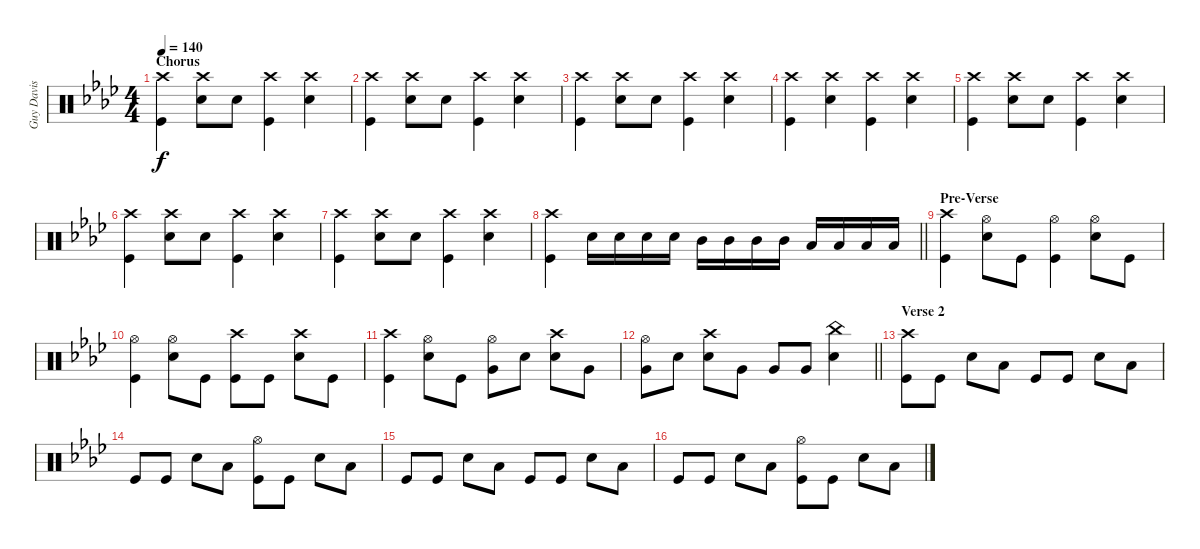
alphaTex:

\track ("Guy Davis" "Guy Davis") {instrument percussion}
\staff {score}
\articulation defaults
\ts (4 4)
\section ("" "Chorus")
\tempo 140
\clef neutral
\ks fminor
("Crash high (hit)" "Kick (hit)").4{dy f} ("Crash high (hit)" "Snare (hit) 2").8 "Snare (hit) 2".8 ("Crash high (hit)" "Kick (hit)").4 ("Crash high (hit)" "Snare (hit) 2").4 |
("Crash high (hit)" "Kick (hit)").4 ("Crash high (hit)" "Snare (hit) 2").8 "Snare (hit) 2".8 ("Crash high (hit)" "Kick (hit)").4 ("Crash high (hit)" "Snare (hit) 2").4 |
("Crash high (hit)" "Kick (hit)").4 ("Crash high (hit)" "Snare (hit) 2").8 "Snare (hit) 2".8 ("Crash high (hit)" "Kick (hit)").4 ("Crash high (hit)" "Snare (hit) 2").4 |
("Crash high (hit)" "Kick (hit)").4 ("Crash high (hit)" "Snare (hit) 2").4 ("Crash high (hit)" "Kick (hit)").4 ("Crash high (hit)" "Snare (hit) 2").4 |
("Crash high (hit)" "Kick (hit)").4 ("Crash high (hit)" "Snare (hit) 2").8 "Snare (hit) 2".8 ("Crash high (hit)" "Kick (hit)").4 ("Crash high (hit)" "Snare (hit) 2").4 |
("Crash high (hit)" "Kick (hit)").4 ("Crash high (hit)" "Snare (hit) 2").8 "Snare (hit) 2".8 ("Crash high (hit)" "Kick (hit)").4 ("Crash high (hit)" "Snare (hit) 2").4 |
("Crash high (hit)" "Kick (hit)").4 ("Crash high (hit)" "Snare (hit) 2").8 "Snare (hit) 2".8 ("Crash high (hit)" "Kick (hit)").4 ("Crash high (hit)" "Snare (hit) 2").4 |
\barLineRight lightlight
("Crash high (hit)" "Kick (hit)").4 "Snare (hit) 2".16 "Snare (hit) 2".16 "Snare (hit) 2".16 "Snare (hit) 2".16 "Mid Tom (hit)".16 "Mid Tom (hit)".16 "Mid Tom (hit)".16 "Mid Tom (hit)".16 "Low Tom (hit)".16 "Low Tom (hit)".16 "Low Tom (hit)".16 "Low Tom (hit)".16 |
\section ("" "Pre-Verse")
("Crash high (hit)" "Kick (hit)").4 ("Hi-Hat (open)" "Snare (hit) 2").8 "Kick (hit)".8 ("Hi-Hat (open)" "Kick (hit)").4 ("Hi-Hat (open)" "Snare (hit) 2").8 "Kick (hit)".8 |
("Hi-Hat (open)" "Kick (hit)").4 ("Hi-Hat (open)" "Snare (hit) 2").8 "Kick (hit)".8 ("Crash high (hit)" "Kick (hit)").8 "Kick (hit)".8 ("Crash high (hit)" "Snare (hit) 2").8 "Kick (hit)".8 |
("Crash high (hit)" "Kick (hit)").4 ("Hi-Hat (open)" "Snare (hit) 2").8 "Kick (hit)".8 ("Hi-Hat (open)" "Very Low Tom (hit)").8 "Snare (hit) 2".8 ("Crash high (hit)" "Snare (hit) 2").8 "Very Low Tom (hit)".8 |
\barLineRight lightlight
("Hi-Hat (open)" "Very Low Tom (hit)").8 "Snare (hit) 2".8 ("Crash high (hit)" "Snare (hit) 2").8 "Very Low Tom (hit)".8 "Very Low Tom (hit)".8 "Very Low Tom (hit)".8 ("China (hit)" "Snare (hit) 2").4 |
\section ("" "Verse 2")
("Crash high (hit)" "Kick (hit)").8 "Kick (hit)".8 "Snare (hit) 2".8 "Low Tom (hit)".8 "Kick (hit)".8 "Kick (hit)".8 "Snare (hit) 2".8 "Low Tom (hit)".8 |
"Kick (hit)".8 "Kick (hit)".8 "Snare (hit) 2".8 "Low Tom (hit)".8 ("Hi-Hat (open)" "Kick (hit)").8 "Kick (hit)".8 "Snare (hit) 2".8 "Low Tom (hit)".8 |
"Kick (hit)".8 "Kick (hit)".8 "Snare (hit) 2".8 "Low Tom (hit)".8 "Kick (hit)".8 "Kick (hit)".8 "Snare (hit) 2".8 "Low Tom (hit)".8 |
"Kick (hit)".8 "Kick (hit)".8 "Snare (hit) 2".8 "Low Tom (hit)".8 ("Hi-Hat (open)" "Kick (hit)").8 "Kick (hit)".8 "Snare (hit) 2".8 "Low Tom (hit)".8
